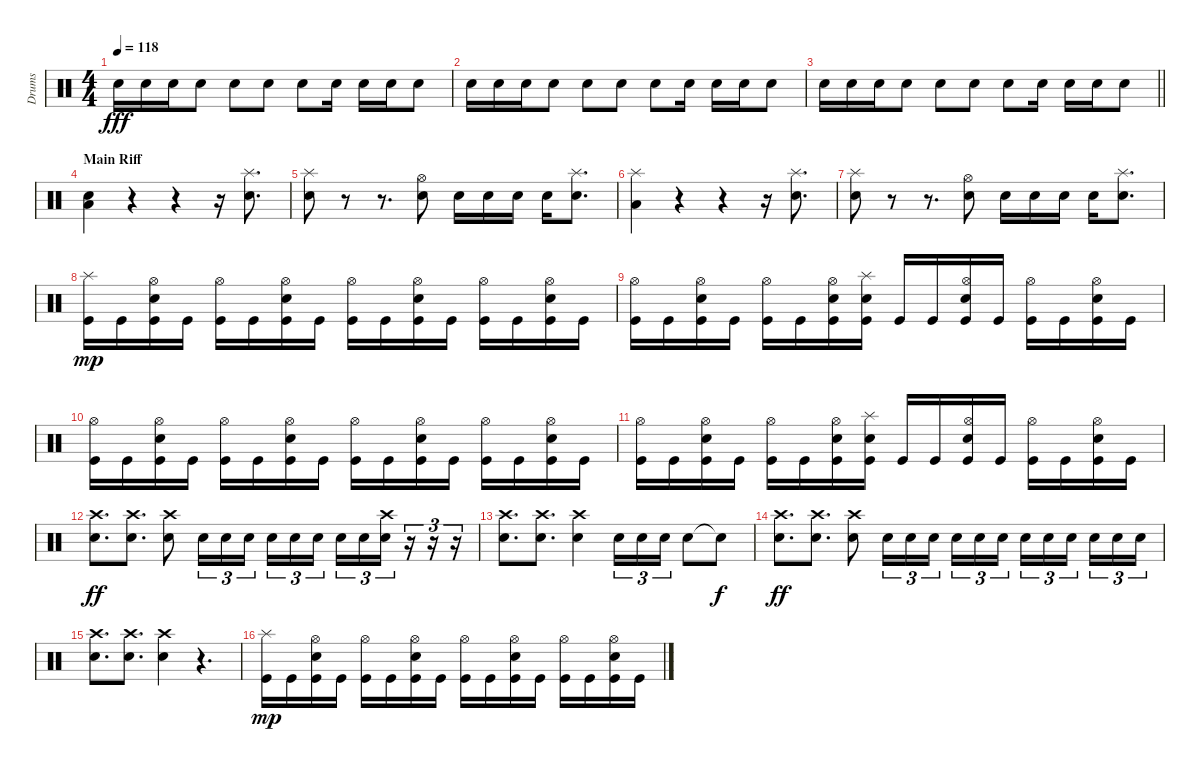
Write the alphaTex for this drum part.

\track ("Drums" "Drums") {instrument percussion}
\staff {score}
\articulation defaults
\ts (4 4)
\tempo 118
\clef neutral
\ks c "Electric Snare (hit)".16{dy fff} "Electric Snare (hit)".16 "Electric Snare (hit)".16 "Electric Snare (hit)".8 "Electric Snare (hit)".8 "Electric Snare (hit)".8 "Electric Snare (hit)".8 "Electric Snare (hit)".16 "Electric Snare (hit)".16 "Electric Snare (hit)".16 "Electric Snare (hit)".8
|
"Electric Snare (hit)".16 "Electric Snare (hit)".16 "Electric Snare (hit)".16 "Electric Snare (hit)".8 "Electric Snare (hit)".8 "Electric Snare (hit)".8 "Electric Snare (hit)".8 "Electric Snare (hit)".16 "Electric Snare (hit)".16 "Electric Snare (hit)".16 "Electric Snare (hit)".8 |
\barLineRight lightlight "Electric Snare (hit)".16 "Electric Snare (hit)".16 "Electric Snare (hit)".16 "Electric Snare (hit)".8 "Electric Snare (hit)".8 "Electric Snare (hit)".8 "Electric Snare (hit)".8 "Electric Snare (hit)".16 "Electric Snare (hit)".16 "Electric Snare (hit)".16 "Electric Snare (hit)".8
|
\section ("" "Main Riff")
("Electric Snare (hit)" "Low Tom (hit)").4 r.4 r.4 r.16 ("Splash (hit)" "Electric Snare (hit)").8{d} |
("Splash (hit)" "Electric Snare (hit)").8 r.8 r.8{d} ("Hi-Hat (open)" "Electric Snare (hit)").8 "Snare (hit) 2".16 "Snare (hit) 2".16 "Snare (hit) 2".16 "Snare (hit) 2".16 ("Splash (hit)" "Snare (hit) 2").8{d} |
("Splash (hit)" "Low Tom (hit)").4 r.4 r.4 r.16 ("Splash (hit)" "Electric Snare (hit)").8{d} |
("Splash (hit)" "Electric Snare (hit)").8 r.8 r.8{d} ("Hi-Hat (open)" "Electric Snare (hit)").8 "Snare (hit) 2".16 "Snare (hit) 2".16 "Snare (hit) 2".16 "Snare (hit) 2".16 ("Splash (hit)" "Snare (hit) 2").8{d} |
("Splash (hit)" "Kick (hit)").16{dy mp} "Kick (hit)".16 ("Hi-Hat (open)" "Electric Snare (hit)" "Kick (hit)").16 "Kick (hit)".16 ("Hi-Hat (open)" "Kick (hit)").16 "Kick (hit)".16 ("Hi-Hat (open)" "Electric Snare (hit)" "Kick (hit)").16 "Kick (hit)".16 ("Hi-Hat (open)" "Kick (hit)").16 "Kick (hit)".16 ("Hi-Hat (open)" "Electric Snare (hit)" "Kick (hit)").16 "Kick (hit)".16 ("Hi-Hat (open)" "Kick (hit)").16 "Kick (hit)".16 ("Hi-Hat (open)" "Electric Snare (hit)" "Kick (hit)").16 "Kick (hit)".16 |
("Hi-Hat (open)" "Kick (hit)").16 "Kick (hit)".16 ("Hi-Hat (open)" "Electric Snare (hit)" "Kick (hit)").16 "Kick (hit)".16 ("Hi-Hat (open)" "Kick (hit)").16 "Kick (hit)".16 ("Hi-Hat (open)" "Electric Snare (hit)" "Kick (hit)").16 ("Splash (hit)" "Electric Snare (hit)" "Kick (hit)").16 "Kick (hit)".16 "Kick (hit)".16 ("Hi-Hat (open)" "Electric Snare (hit)" "Kick (hit)").16 "Kick (hit)".16 ("Hi-Hat (open)" "Kick (hit)").16 "Kick (hit)".16 ("Hi-Hat (open)" "Electric Snare (hit)" "Kick (hit)").16 "Kick (hit)".16 |
("Hi-Hat (open)" "Kick (hit)").16 "Kick (hit)".16 ("Hi-Hat (open)" "Electric Snare (hit)" "Kick (hit)").16 "Kick (hit)".16 ("Hi-Hat (open)" "Kick (hit)").16 "Kick (hit)".16 ("Hi-Hat (open)" "Electric Snare (hit)" "Kick (hit)").16 "Kick (hit)".16 ("Hi-Hat (open)" "Kick (hit)").16 "Kick (hit)".16 ("Hi-Hat (open)" "Electric Snare (hit)" "Kick (hit)").16 "Kick (hit)".16 ("Hi-Hat (open)" "Kick (hit)").16 "Kick (hit)".16 ("Hi-Hat (open)" "Electric Snare (hit)" "Kick (hit)").16 "Kick (hit)".16 |
("Hi-Hat (open)" "Kick (hit)").16 "Kick (hit)".16 ("Hi-Hat (open)" "Electric Snare (hit)" "Kick (hit)").16 "Kick (hit)".16 ("Hi-Hat (open)" "Kick (hit)").16 "Kick (hit)".16 ("Hi-Hat (open)" "Electric Snare (hit)" "Kick (hit)").16 ("Splash (hit)" "Electric Snare (hit)" "Kick (hit)").16 "Kick (hit)".16 "Kick (hit)".16 ("Hi-Hat (open)" "Electric Snare (hit)" "Kick (hit)").16 "Kick (hit)".16 ("Hi-Hat (open)" "Kick (hit)").16 "Kick (hit)".16 ("Hi-Hat (open)" "Electric Snare (hit)" "Kick (hit)").16 "Kick (hit)".16 |
("Crash high (hit)" "Electric Snare (hit)").8{d dy ff} ("Crash high (hit)" "Electric Snare (hit)").8{d} ("Crash high (hit)" "Electric Snare (hit)").8 "Electric Snare (hit)".16{tu (3 2)} "Electric Snare (hit)".16{tu (3 2)} "Snare (hit) 2".16{tu (3 2)} "Snare (hit) 2".16{tu (3 2)} "Snare (hit) 2".16{tu (3 2)} "Snare (hit) 2".16{tu (3 2)} "Snare (hit) 2".16{tu (3 2)} "Snare (hit) 2".16{tu (3 2)} ("Crash high (hit)" "Snare (hit) 2").16{tu (3 2)} r.16{tu (3 2)} r.16{tu (3 2)} r.16{tu (3 2)} |
("Crash high (hit)" "Electric Snare (hit)").8{d} ("Crash high (hit)" "Electric Snare (hit)").8{d} ("Crash high (hit)" "Electric Snare (hit)").4 "Snare (hit) 2".16{tu (3 2)} "Snare (hit) 2".16{tu (3 2)} "Snare (hit) 2".16{tu (3 2)} "Electric Snare (hit)".8 "Snare (hit)"{t}.8{dy f} |
("Crash high (hit)" "Electric Snare (hit)").8{d dy ff} ("Crash high (hit)" "Electric Snare (hit)").8{d} ("Crash high (hit)" "Electric Snare (hit)").8 "Electric Snare (hit)".16{tu (3 2)} "Electric Snare (hit)".16{tu (3 2)} "Snare (hit) 2".16{tu (3 2)} "Snare (hit) 2".16{tu (3 2)} "Snare (hit) 2".16{tu (3 2)} "Snare (hit) 2".16{tu (3 2)} "Snare (hit) 2".16{tu (3 2)} "Snare (hit) 2".16{tu (3 2)} "Snare (hit) 2".16{tu (3 2)} "Snare (hit) 2".16{tu (3 2)} "Snare (hit) 2".16{tu (3 2)} "Snare (hit) 2".16{tu (3 2)} |
("Crash high (hit)" "Electric Snare (hit)").8{d} ("Crash high (hit)" "Electric Snare (hit)").8{d} ("Crash high (hit)" "Electric Snare (hit)").4 r.4{d} |
("Splash (hit)" "Kick (hit)").16{dy mp} "Kick (hit)".16 ("Hi-Hat (open)" "Electric Snare (hit)" "Kick (hit)").16 "Kick (hit)".16 ("Hi-Hat (open)" "Kick (hit)").16 "Kick (hit)".16 ("Hi-Hat (open)" "Electric Snare (hit)" "Kick (hit)").16 "Kick (hit)".16 ("Hi-Hat (open)" "Kick (hit)").16 "Kick (hit)".16 ("Hi-Hat (open)" "Electric Snare (hit)" "Kick (hit)").16 "Kick (hit)".16 ("Hi-Hat (open)" "Kick (hit)").16 "Kick (hit)".16 ("Hi-Hat (open)" "Electric Snare (hit)" "Kick (hit)").16 "Kick (hit)".16
